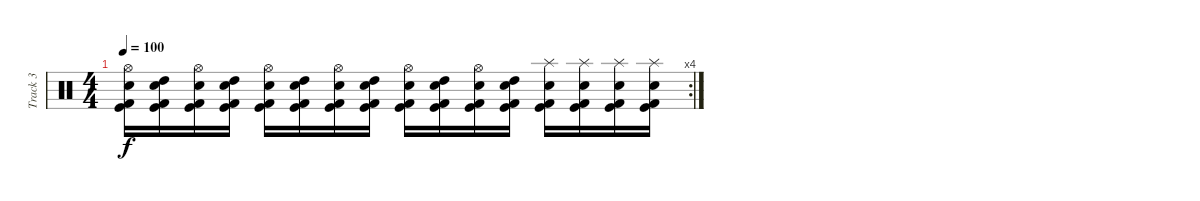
\track ("Track 3" "Track 3") {instrument percussion}
\staff {score}
\articulation defaults
\rc 4
\ts (4 4)
\tempo 100
\clef neutral
\ks c
("Hi-Hat (open)" "Snare (hit) 2" "Kick (hit) 2" "Kick (hit)").16{dy f} ("High Tom (hit)" "Snare (hit) 2" "Kick (hit) 2" "Kick (hit)").16 ("Hi-Hat (open)" "Snare (hit) 2" "Kick (hit) 2" "Kick (hit)").16 ("High Tom (hit)" "Snare (hit) 2" "Kick (hit) 2" "Kick (hit)").16 ("Hi-Hat (open)" "Snare (hit) 2" "Kick (hit) 2" "Kick (hit)").16 ("High Tom (hit)" "Snare (hit) 2" "Kick (hit) 2" "Kick (hit)").16 ("Hi-Hat (open)" "Snare (hit) 2" "Kick (hit) 2" "Kick (hit)").16 ("High Tom (hit)" "Snare (hit) 2" "Kick (hit) 2" "Kick (hit)").16 ("Hi-Hat (open)" "Snare (hit) 2" "Kick (hit) 2" "Kick (hit)").16 ("High Tom (hit)" "Snare (hit) 2" "Kick (hit) 2" "Kick (hit)").16 ("Hi-Hat (open)" "Snare (hit) 2" "Kick (hit) 2" "Kick (hit)").16 ("High Tom (hit)" "Snare (hit) 2" "Kick (hit) 2" "Kick (hit)").16 ("Splash (hit)" "Snare (hit) 2" "Kick (hit) 2" "Kick (hit)").16 ("Splash (hit)" "Snare (hit) 2" "Kick (hit) 2" "Kick (hit)").16 ("Splash (hit)" "Snare (hit) 2" "Kick (hit) 2" "Kick (hit)").16 ("Splash (hit)" "Snare (hit) 2" "Kick (hit) 2" "Kick (hit)").16
